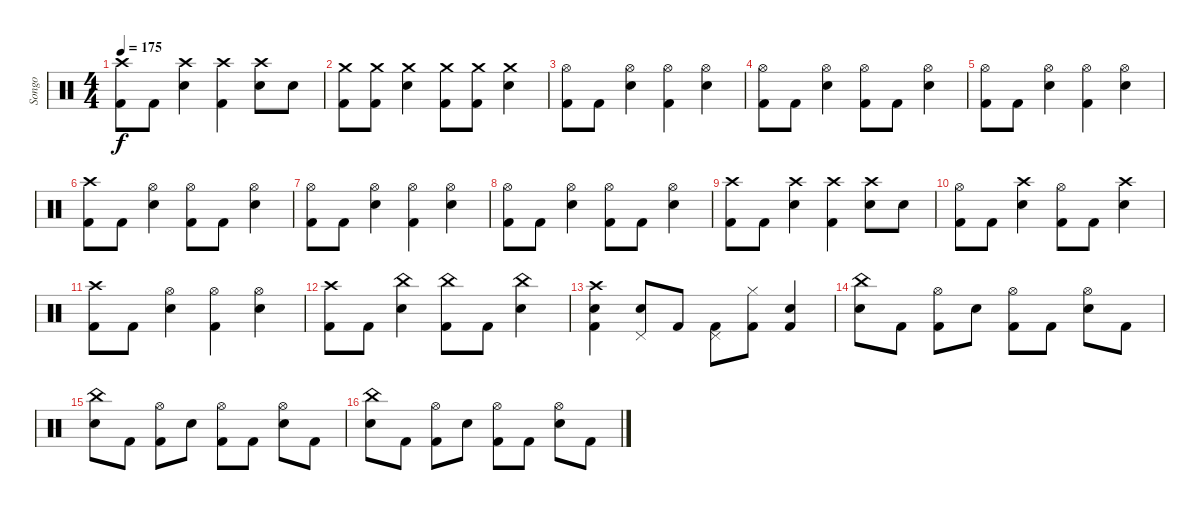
\track ("Songo" "Songo") {instrument percussion}
\staff {score}
\articulation defaults
\ts (4 4)
\tempo 175
\clef neutral
\ks c
("Crash high (hit)" "Kick (hit) 2").8{dy f} "Kick (hit) 2".8 ("Crash high (hit)" "Electric Snare (hit)").4 ("Crash high (hit)" "Kick (hit) 2").4 ("Crash high (hit)" "Electric Snare (hit)").8 "Electric Snare (hit)".8 |
("Crash medium (hit)" "Kick (hit) 2").8 ("Crash medium (hit)" "Kick (hit) 2").8 ("Crash medium (hit)" "Electric Snare (hit)").4 ("Crash medium (hit)" "Kick (hit) 2").8 ("Crash medium (hit)" "Kick (hit) 2").8 ("Crash medium (hit)" "Electric Snare (hit)").4 |
("Hi-Hat (open)" "Kick (hit) 2").8 "Kick (hit) 2".8 ("Hi-Hat (open)" "Electric Snare (hit)").4 ("Hi-Hat (open)" "Kick (hit) 2").4 ("Hi-Hat (open)" "Electric Snare (hit)").4 |
("Hi-Hat (open)" "Kick (hit) 2").8 "Kick (hit) 2".8 ("Hi-Hat (open)" "Electric Snare (hit)").4 ("Hi-Hat (open)" "Kick (hit) 2").8 "Kick (hit) 2".8 ("Hi-Hat (open)" "Electric Snare (hit)").4 |
("Hi-Hat (open)" "Kick (hit) 2").8 "Kick (hit) 2".8 ("Hi-Hat (open)" "Electric Snare (hit)").4 ("Hi-Hat (open)" "Kick (hit) 2").4 ("Hi-Hat (open)" "Electric Snare (hit)").4 |
("Crash high (hit)" "Kick (hit) 2").8 "Kick (hit) 2".8 ("Hi-Hat (open)" "Electric Snare (hit)").4 ("Hi-Hat (open)" "Kick (hit) 2").8 "Kick (hit) 2".8 ("Hi-Hat (open)" "Electric Snare (hit)").4 |
("Hi-Hat (open)" "Kick (hit) 2").8 "Kick (hit) 2".8 ("Hi-Hat (open)" "Electric Snare (hit)").4 ("Hi-Hat (open)" "Kick (hit) 2").4 ("Hi-Hat (open)" "Electric Snare (hit)").4 |
("Hi-Hat (open)" "Kick (hit) 2").8 "Kick (hit) 2".8 ("Hi-Hat (open)" "Electric Snare (hit)").4 ("Hi-Hat (open)" "Kick (hit) 2").8 "Kick (hit) 2".8 ("Hi-Hat (open)" "Electric Snare (hit)").4 |
("Crash high (hit)" "Kick (hit) 2").8 "Kick (hit) 2".8 ("Crash high (hit)" "Electric Snare (hit)").4 ("Crash high (hit)" "Kick (hit) 2").4 ("Crash high (hit)" "Electric Snare (hit)").8 "Electric Snare (hit)".8 |
("Hi-Hat (open)" "Kick (hit) 2").8 "Kick (hit) 2".8 ("Crash high (hit)" "Electric Snare (hit)").4 ("Hi-Hat (open)" "Kick (hit) 2").8 "Kick (hit) 2".8 ("Crash high (hit)" "Electric Snare (hit)").4 |
("Crash high (hit)" "Kick (hit) 2").8 "Kick (hit) 2".8 ("Hi-Hat (open)" "Electric Snare (hit)").4 ("Hi-Hat (open)" "Kick (hit) 2").4 ("Hi-Hat (open)" "Electric Snare (hit)").4 |
("Crash high (hit)" "Kick (hit) 2").8 "Kick (hit) 2".8 ("China (hit)" "Electric Snare (hit)").4 ("China (hit)" "Kick (hit) 2").8 "Kick (hit) 2".8 ("China (hit)" "Electric Snare (hit)").4 |
("Crash high (hit)" "Electric Snare (hit)" "Kick (hit) 2").4 ("Pedal Hi-Hat (hit)" "Electric Snare (hit)").8 "Kick (hit) 2".8 ("Pedal Hi-Hat (hit)" "Kick (hit) 2").8 ("Hi-Hat (closed)" "Kick (hit) 2").8 ("Electric Snare (hit)" "Kick (hit) 2").4 |
("China (hit)" "Electric Snare (hit)").8 "Kick (hit) 2".8 ("Hi-Hat (open)" "Kick (hit) 2").8 "Electric Snare (hit)".8 ("Hi-Hat (open)" "Kick (hit) 2").8 "Kick (hit) 2".8 ("Hi-Hat (open)" "Electric Snare (hit)").8 "Kick (hit) 2".8 |
("China (hit)" "Electric Snare (hit)").8 "Kick (hit) 2".8 ("Hi-Hat (open)" "Kick (hit) 2").8 "Electric Snare (hit)".8 ("Hi-Hat (open)" "Kick (hit) 2").8 "Kick (hit) 2".8 ("Hi-Hat (open)" "Electric Snare (hit)").8 "Kick (hit) 2".8 |
("China (hit)" "Electric Snare (hit)").8 "Kick (hit) 2".8 ("Hi-Hat (open)" "Kick (hit) 2").8 "Electric Snare (hit)".8 ("Hi-Hat (open)" "Kick (hit) 2").8 "Kick (hit) 2".8 ("Hi-Hat (open)" "Electric Snare (hit)").8 "Kick (hit) 2".8
